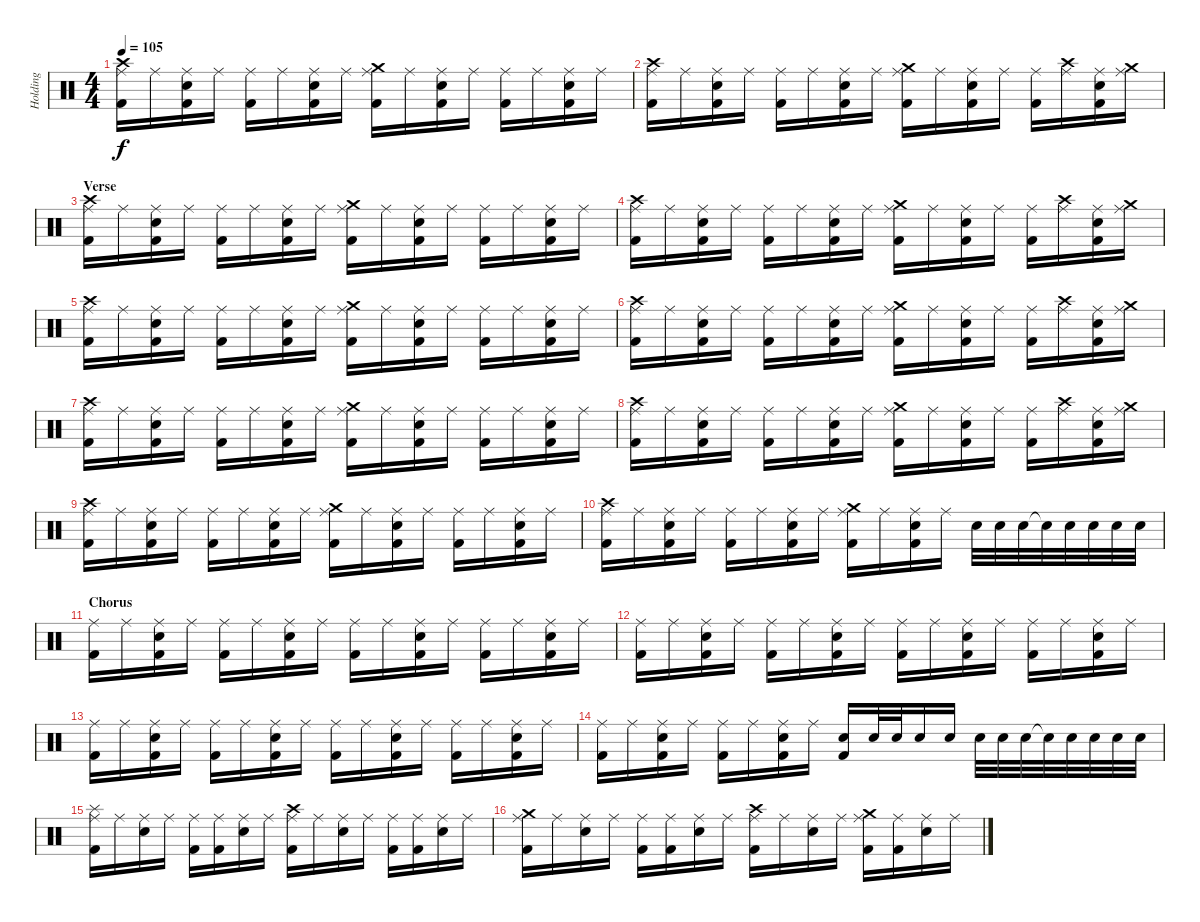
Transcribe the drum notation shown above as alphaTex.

\track ("Holding" "Holding") {instrument percussion}
\staff {score}
\articulation defaults
\ts (4 4)
\tempo 105
\clef neutral
\ks c
("Crash high (hit)" "Ride (middle)" "Kick (hit) 2").16{dy f} "Ride (middle)".16 ("Ride (middle)" "Electric Snare (hit)" "Kick (hit) 2").16 "Ride (middle)".16 ("Ride (middle)" "Kick (hit) 2").16 "Ride (middle)".16 ("Ride (middle)" "Electric Snare (hit)" "Kick (hit) 2").16 "Ride (middle)".16 ("Crash medium (hit)" "Ride (middle)" "Kick (hit) 2").16 "Ride (middle)".16 ("Ride (middle)" "Electric Snare (hit)" "Kick (hit) 2").16 "Ride (middle)".16 ("Ride (middle)" "Kick (hit) 2").16 "Ride (middle)".16 ("Ride (middle)" "Electric Snare (hit)" "Kick (hit) 2").16 "Ride (middle)".16 |
("Crash high (hit)" "Ride (middle)" "Kick (hit) 2").16 "Ride (middle)".16 ("Ride (middle)" "Electric Snare (hit)" "Kick (hit) 2").16 "Ride (middle)".16 ("Ride (middle)" "Kick (hit) 2").16 "Ride (middle)".16 ("Ride (middle)" "Electric Snare (hit)" "Kick (hit) 2").16 "Ride (middle)".16 ("Crash medium (hit)" "Ride (middle)" "Kick (hit) 2").16 "Ride (middle)".16 ("Ride (middle)" "Electric Snare (hit)" "Kick (hit) 2").16 "Ride (middle)".16 ("Ride (middle)" "Kick (hit) 2").16 ("Crash high (hit)" "Ride (middle)").16 ("Ride (middle)" "Electric Snare (hit)" "Kick (hit) 2").16 ("Crash medium (hit)" "Ride (middle)").16 |
\section ("" "Verse")
("Crash high (hit)" "Ride (middle)" "Kick (hit) 2").16 "Ride (middle)".16 ("Ride (middle)" "Electric Snare (hit)" "Kick (hit) 2").16 "Ride (middle)".16 ("Ride (middle)" "Kick (hit) 2").16 "Ride (middle)".16 ("Ride (middle)" "Electric Snare (hit)" "Kick (hit) 2").16 "Ride (middle)".16 ("Crash medium (hit)" "Ride (middle)" "Kick (hit) 2").16 "Ride (middle)".16 ("Ride (middle)" "Electric Snare (hit)" "Kick (hit) 2").16 "Ride (middle)".16 ("Ride (middle)" "Kick (hit) 2").16 "Ride (middle)".16 ("Ride (middle)" "Electric Snare (hit)" "Kick (hit) 2").16 "Ride (middle)".16 |
("Crash high (hit)" "Ride (middle)" "Kick (hit) 2").16 "Ride (middle)".16 ("Ride (middle)" "Electric Snare (hit)" "Kick (hit) 2").16 "Ride (middle)".16 ("Ride (middle)" "Kick (hit) 2").16 "Ride (middle)".16 ("Ride (middle)" "Electric Snare (hit)" "Kick (hit) 2").16 "Ride (middle)".16 ("Crash medium (hit)" "Ride (middle)" "Kick (hit) 2").16 "Ride (middle)".16 ("Ride (middle)" "Electric Snare (hit)" "Kick (hit) 2").16 "Ride (middle)".16 ("Ride (middle)" "Kick (hit) 2").16 ("Crash high (hit)" "Ride (middle)").16 ("Ride (middle)" "Electric Snare (hit)" "Kick (hit) 2").16 ("Crash medium (hit)" "Ride (middle)").16 |
("Crash high (hit)" "Ride (middle)" "Kick (hit) 2").16 "Ride (middle)".16 ("Ride (middle)" "Electric Snare (hit)" "Kick (hit) 2").16 "Ride (middle)".16 ("Ride (middle)" "Kick (hit) 2").16 "Ride (middle)".16 ("Ride (middle)" "Electric Snare (hit)" "Kick (hit) 2").16 "Ride (middle)".16 ("Crash medium (hit)" "Ride (middle)" "Kick (hit) 2").16 "Ride (middle)".16 ("Ride (middle)" "Electric Snare (hit)" "Kick (hit) 2").16 "Ride (middle)".16 ("Ride (middle)" "Kick (hit) 2").16 "Ride (middle)".16 ("Ride (middle)" "Electric Snare (hit)" "Kick (hit) 2").16 "Ride (middle)".16 |
("Crash high (hit)" "Ride (middle)" "Kick (hit) 2").16 "Ride (middle)".16 ("Ride (middle)" "Electric Snare (hit)" "Kick (hit) 2").16 "Ride (middle)".16 ("Ride (middle)" "Kick (hit) 2").16 "Ride (middle)".16 ("Ride (middle)" "Electric Snare (hit)" "Kick (hit) 2").16 "Ride (middle)".16 ("Crash medium (hit)" "Ride (middle)" "Kick (hit) 2").16 "Ride (middle)".16 ("Ride (middle)" "Electric Snare (hit)" "Kick (hit) 2").16 "Ride (middle)".16 ("Ride (middle)" "Kick (hit) 2").16 ("Crash high (hit)" "Ride (middle)").16 ("Ride (middle)" "Electric Snare (hit)" "Kick (hit) 2").16 ("Crash medium (hit)" "Ride (middle)").16 |
("Crash high (hit)" "Ride (middle)" "Kick (hit) 2").16 "Ride (middle)".16 ("Ride (middle)" "Electric Snare (hit)" "Kick (hit) 2").16 "Ride (middle)".16 ("Ride (middle)" "Kick (hit) 2").16 "Ride (middle)".16 ("Ride (middle)" "Electric Snare (hit)" "Kick (hit) 2").16 "Ride (middle)".16 ("Crash medium (hit)" "Ride (middle)" "Kick (hit) 2").16 "Ride (middle)".16 ("Ride (middle)" "Electric Snare (hit)" "Kick (hit) 2").16 "Ride (middle)".16 ("Ride (middle)" "Kick (hit) 2").16 "Ride (middle)".16 ("Ride (middle)" "Electric Snare (hit)" "Kick (hit) 2").16 "Ride (middle)".16 |
("Crash high (hit)" "Ride (middle)" "Kick (hit) 2").16 "Ride (middle)".16 ("Ride (middle)" "Electric Snare (hit)" "Kick (hit) 2").16 "Ride (middle)".16 ("Ride (middle)" "Kick (hit) 2").16 "Ride (middle)".16 ("Ride (middle)" "Electric Snare (hit)" "Kick (hit) 2").16 "Ride (middle)".16 ("Crash medium (hit)" "Ride (middle)" "Kick (hit) 2").16 "Ride (middle)".16 ("Ride (middle)" "Electric Snare (hit)" "Kick (hit) 2").16 "Ride (middle)".16 ("Ride (middle)" "Kick (hit) 2").16 ("Crash high (hit)" "Ride (middle)").16 ("Ride (middle)" "Electric Snare (hit)" "Kick (hit) 2").16 ("Crash medium (hit)" "Ride (middle)").16 |
("Crash high (hit)" "Ride (middle)" "Kick (hit) 2").16 "Ride (middle)".16 ("Ride (middle)" "Electric Snare (hit)" "Kick (hit) 2").16 "Ride (middle)".16 ("Ride (middle)" "Kick (hit) 2").16 "Ride (middle)".16 ("Ride (middle)" "Electric Snare (hit)" "Kick (hit) 2").16 "Ride (middle)".16 ("Crash medium (hit)" "Ride (middle)" "Kick (hit) 2").16 "Ride (middle)".16 ("Ride (middle)" "Electric Snare (hit)" "Kick (hit) 2").16 "Ride (middle)".16 ("Ride (middle)" "Kick (hit) 2").16 "Ride (middle)".16 ("Ride (middle)" "Electric Snare (hit)" "Kick (hit) 2").16 "Ride (middle)".16 |
("Crash high (hit)" "Ride (middle)" "Kick (hit) 2").16 "Ride (middle)".16 ("Ride (middle)" "Electric Snare (hit)" "Kick (hit) 2").16 "Ride (middle)".16 ("Ride (middle)" "Kick (hit) 2").16 "Ride (middle)".16 ("Ride (middle)" "Electric Snare (hit)" "Kick (hit) 2").16 "Ride (middle)".16 ("Crash medium (hit)" "Ride (middle)" "Kick (hit) 2").16 "Ride (middle)".16 ("Ride (middle)" "Electric Snare (hit)" "Kick (hit) 2").16 "Ride (middle)".16 "Electric Snare (hit)".32 "Electric Snare (hit)".32 "Electric Snare (hit)".32 "Electric Snare (hit)"{t}.32 "Electric Snare (hit)".32 "Electric Snare (hit)".32 "Electric Snare (hit)".32 "Electric Snare (hit)".32 |
\section ("" "Chorus")
("Ride (middle)" "Kick (hit) 2").16 "Ride (middle)".16 ("Ride (middle)" "Electric Snare (hit)" "Kick (hit) 2").16 "Ride (middle)".16 ("Ride (middle)" "Kick (hit) 2").16 "Ride (middle)".16 ("Ride (middle)" "Electric Snare (hit)" "Kick (hit) 2").16 "Ride (middle)".16 ("Ride (middle)" "Kick (hit) 2").16 "Ride (middle)".16 ("Ride (middle)" "Electric Snare (hit)" "Kick (hit) 2").16 "Ride (middle)".16 ("Ride (middle)" "Kick (hit) 2").16 "Ride (middle)".16 ("Ride (middle)" "Electric Snare (hit)" "Kick (hit) 2").16 "Ride (middle)".16 |
("Ride (middle)" "Kick (hit) 2").16 "Ride (middle)".16 ("Ride (middle)" "Electric Snare (hit)" "Kick (hit) 2").16 "Ride (middle)".16 ("Ride (middle)" "Kick (hit) 2").16 "Ride (middle)".16 ("Ride (middle)" "Electric Snare (hit)" "Kick (hit) 2").16 "Ride (middle)".16 ("Ride (middle)" "Kick (hit) 2").16 "Ride (middle)".16 ("Ride (middle)" "Electric Snare (hit)" "Kick (hit) 2").16 "Ride (middle)".16 ("Ride (middle)" "Kick (hit) 2").16 "Ride (middle)".16 ("Ride (middle)" "Electric Snare (hit)" "Kick (hit) 2").16 "Ride (middle)".16 |
("Ride (middle)" "Kick (hit) 2").16 "Ride (middle)".16 ("Ride (middle)" "Electric Snare (hit)" "Kick (hit) 2").16 "Ride (middle)".16 ("Ride (middle)" "Kick (hit) 2").16 "Ride (middle)".16 ("Ride (middle)" "Electric Snare (hit)" "Kick (hit) 2").16 "Ride (middle)".16 ("Ride (middle)" "Kick (hit) 2").16 "Ride (middle)".16 ("Ride (middle)" "Electric Snare (hit)" "Kick (hit) 2").16 "Ride (middle)".16 ("Ride (middle)" "Kick (hit) 2").16 "Ride (middle)".16 ("Ride (middle)" "Electric Snare (hit)" "Kick (hit) 2").16 "Ride (middle)".16 |
("Ride (middle)" "Kick (hit) 2").16 "Ride (middle)".16 ("Ride (middle)" "Electric Snare (hit)" "Kick (hit) 2").16 "Ride (middle)".16 ("Ride (middle)" "Kick (hit) 2").16 "Ride (middle)".16 ("Ride (middle)" "Electric Snare (hit)" "Kick (hit) 2").16 "Ride (middle)".16 ("Electric Snare (hit)" "Kick (hit) 2").16 "Electric Snare (hit)".32 "Electric Snare (hit)".32 "Electric Snare (hit)".16 "Electric Snare (hit)".16 "Electric Snare (hit)".32 "Electric Snare (hit)".32 "Electric Snare (hit)".32 "Electric Snare (hit)"{t}.32 "Electric Snare (hit)".32 "Electric Snare (hit)".32 "Electric Snare (hit)".32 "Electric Snare (hit)".32 |
("Splash (hit)" "Ride (middle)" "Kick (hit) 2").16 "Ride (middle)".16 ("Ride (middle)" "Electric Snare (hit)").16 "Ride (middle)".16 ("Ride (middle)" "Kick (hit) 2").16 ("Ride (middle)" "Kick (hit) 2").16 ("Ride (middle)" "Electric Snare (hit)").16 "Ride (middle)".16 ("Crash high (hit)" "Ride (middle)" "Kick (hit) 2").16 "Ride (middle)".16 ("Ride (middle)" "Electric Snare (hit)").16 "Ride (middle)".16 ("Ride (middle)" "Kick (hit) 2").16 ("Ride (middle)" "Kick (hit) 2").16 ("Ride (middle)" "Electric Snare (hit)").16 "Ride (middle)".16 |
("Crash medium (hit)" "Ride (middle)" "Kick (hit) 2").16 "Ride (middle)".16 ("Ride (middle)" "Electric Snare (hit)").16 "Ride (middle)".16 ("Ride (middle)" "Kick (hit) 2").16 ("Ride (middle)" "Kick (hit) 2").16 ("Ride (middle)" "Electric Snare (hit)").16 "Ride (middle)".16 ("Crash high (hit)" "Ride (middle)" "Kick (hit) 2").16 "Ride (middle)".16 ("Ride (middle)" "Electric Snare (hit)").16 "Ride (middle)".16 ("Crash medium (hit)" "Ride (middle)" "Kick (hit) 2").16 ("Ride (middle)" "Kick (hit) 2").16 ("Ride (middle)" "Electric Snare (hit)").16 "Ride (middle)".16
